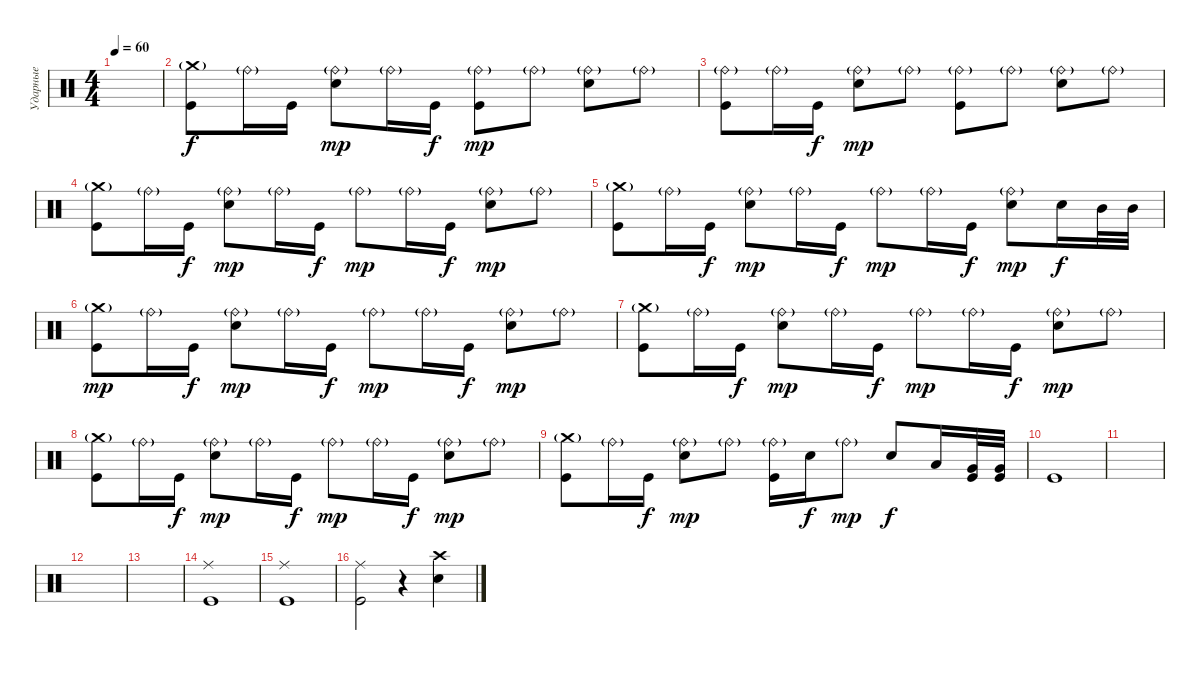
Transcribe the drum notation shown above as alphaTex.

\track ("Ударные" "Ударные") {instrument percussion}
\staff {score}
\articulation defaults
\ts (4 4)
\tempo 60
\clef neutral
\ks c
|
("Crash medium (hit)"{g} "Kick (hit)").8 "Ride (bell)"{g}.16 "Kick (hit)".16{dy f} ("Snare (hit) 2" "Ride (bell)"{g}).8{dy mp} "Ride (bell)"{g}.16 "Kick (hit)".16{dy f} ("Ride (bell)"{g} "Kick (hit)").8{dy mp} "Ride (bell)"{g}.8 ("Snare (hit) 2" "Ride (bell)"{g}).8 "Ride (bell)"{g}.8 |
("Ride (bell)"{g} "Kick (hit)").8 "Ride (bell)"{g}.16 "Kick (hit)".16{dy f} ("Snare (hit) 2" "Ride (bell)"{g}).8{dy mp} "Ride (bell)"{g}.8 ("Ride (bell)"{g} "Kick (hit)").8 "Ride (bell)"{g}.8 ("Snare (hit) 2" "Ride (bell)"{g}).8 "Ride (bell)"{g}.8 |
("Crash medium (hit)"{g} "Kick (hit)").8 "Ride (bell)"{g}.16 "Kick (hit)".16{dy f} ("Snare (hit) 2" "Ride (bell)"{g}).8{dy mp} "Ride (bell)"{g}.16 "Kick (hit)".16{dy f} "Ride (bell)"{g}.8{dy mp} "Ride (bell)"{g}.16 "Kick (hit)".16{dy f} ("Snare (hit) 2" "Ride (bell)"{g}).8{dy mp} "Ride (bell)"{g}.8 |
("Crash medium (hit)"{g} "Kick (hit)").8 "Ride (bell)"{g}.16 "Kick (hit)".16{dy f} ("Snare (hit) 2" "Ride (bell)"{g}).8{dy mp} "Ride (bell)"{g}.16 "Kick (hit)".16{dy f} "Ride (bell)"{g}.8{dy mp} "Ride (bell)"{g}.16 "Kick (hit)".16{dy f} ("Snare (hit) 2" "Ride (bell)"{g}).8{dy mp} "Snare (hit) 2".16{dy f} "Mid Tom (hit)".32 "Mid Tom (hit)".32 |
("Crash medium (hit)"{g} "Kick (hit)").8{dy mp} "Ride (bell)"{g}.16 "Kick (hit)".16{dy f} ("Snare (hit) 2" "Ride (bell)"{g}).8{dy mp} "Ride (bell)"{g}.16 "Kick (hit)".16{dy f} "Ride (bell)"{g}.8{dy mp} "Ride (bell)"{g}.16 "Kick (hit)".16{dy f} ("Snare (hit) 2" "Ride (bell)"{g}).8{dy mp} "Ride (bell)"{g}.8 |
("Crash medium (hit)"{g} "Kick (hit)").8 "Ride (bell)"{g}.16 "Kick (hit)".16{dy f} ("Snare (hit) 2" "Ride (bell)"{g}).8{dy mp} "Ride (bell)"{g}.16 "Kick (hit)".16{dy f} "Ride (bell)"{g}.8{dy mp} "Ride (bell)"{g}.16 "Kick (hit)".16{dy f} ("Snare (hit) 2" "Ride (bell)"{g}).8{dy mp} "Ride (bell)"{g}.8 |
("Crash medium (hit)"{g} "Kick (hit)").8 "Ride (bell)"{g}.16 "Kick (hit)".16{dy f} ("Snare (hit) 2" "Ride (bell)"{g}).8{dy mp} "Ride (bell)"{g}.16 "Kick (hit)".16{dy f} "Ride (bell)"{g}.8{dy mp} "Ride (bell)"{g}.16 "Kick (hit)".16{dy f} ("Snare (hit) 2" "Ride (bell)"{g}).8{dy mp} "Ride (bell)"{g}.8 |
("Crash medium (hit)"{g} "Kick (hit)").8 "Ride (bell)"{g}.16 "Kick (hit)".16{dy f} ("Snare (hit) 2" "Ride (bell)"{g}).8{dy mp} "Ride (bell)"{g}.8 ("Ride (bell)"{g} "Kick (hit)").16 "Snare (hit) 2".16{dy f} "Ride (bell)"{g}.8{dy mp} "Snare (hit) 2".8{dy f} "Low Tom (hit)".16 ("Very Low Tom (hit)" "Kick (hit)").32 ("Very Low Tom (hit)" "Kick (hit)").32 |
"Kick (hit)".1 |
|
|
|
("Ride (middle)" "Kick (hit)").1 |
("Ride (middle)" "Kick (hit)").1 |
("Ride (middle)" "Kick (hit)").2 r.4 ("Crash high (hit)" "Snare (hit) 2").4
